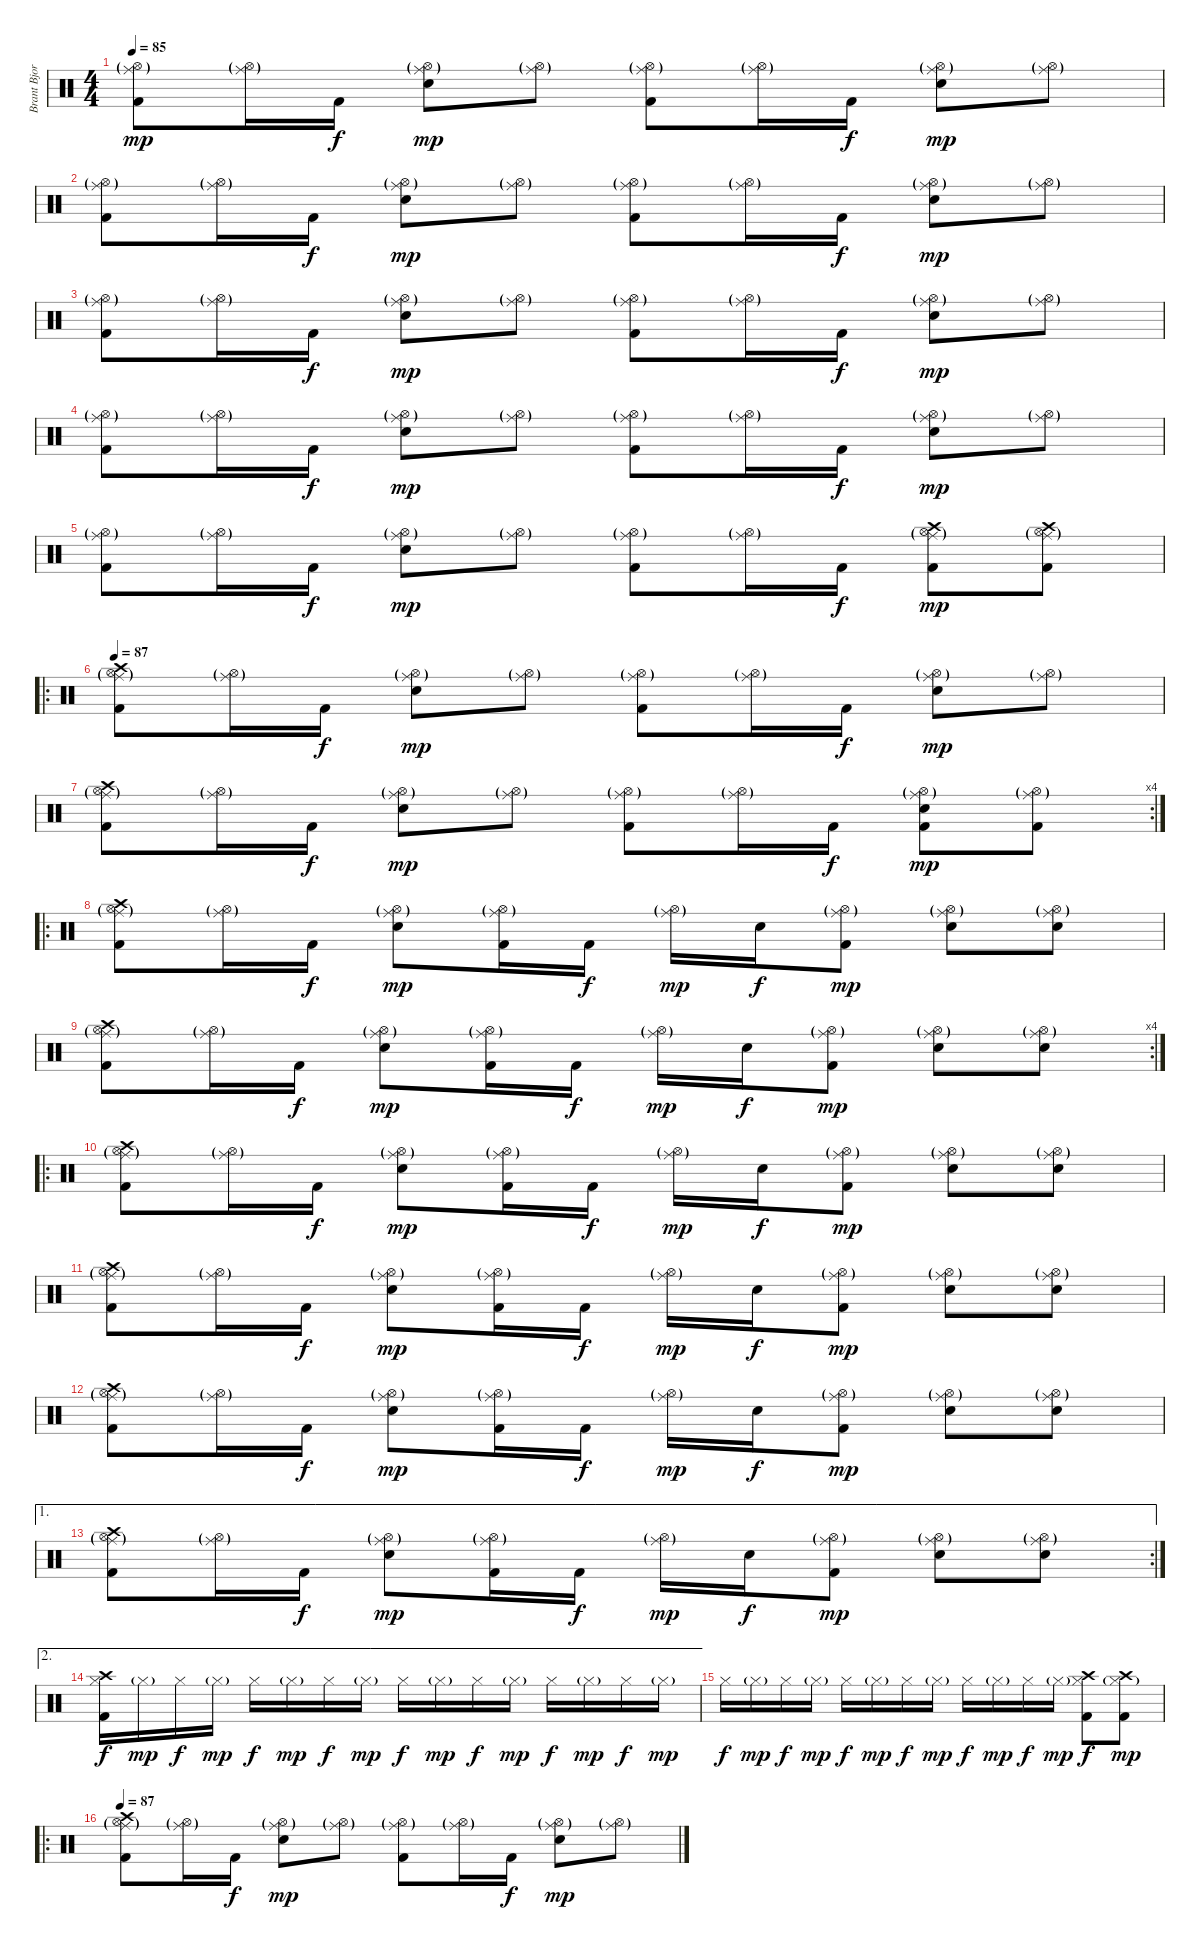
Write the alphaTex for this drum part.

\track ("Brant Bjork" "Brant Bjor") {instrument percussion}
\staff {score}
\articulation defaults
\ts (4 4)
\tempo 85
\clef neutral
\ks c
("Hi-Hat (open)"{g} "Ride (middle)"{g} "Kick (hit) 2").8{dy mp} ("Hi-Hat (open)"{g} "Ride (middle)"{g}).16 "Kick (hit) 2".16{dy f} ("Hi-Hat (open)"{g} "Ride (middle)"{g} "Electric Snare (hit)").8{dy mp} ("Hi-Hat (open)"{g} "Ride (middle)"{g}).8 ("Hi-Hat (open)"{g} "Ride (middle)"{g} "Kick (hit) 2").8 ("Hi-Hat (open)"{g} "Ride (middle)"{g}).16 "Kick (hit) 2".16{dy f} ("Hi-Hat (open)"{g} "Ride (middle)"{g} "Electric Snare (hit)").8{dy mp} ("Hi-Hat (open)"{g} "Ride (middle)"{g}).8 |
("Hi-Hat (open)"{g} "Ride (middle)"{g} "Kick (hit) 2").8 ("Hi-Hat (open)"{g} "Ride (middle)"{g}).16 "Kick (hit) 2".16{dy f} ("Hi-Hat (open)"{g} "Ride (middle)"{g} "Electric Snare (hit)").8{dy mp} ("Hi-Hat (open)"{g} "Ride (middle)"{g}).8 ("Hi-Hat (open)"{g} "Ride (middle)"{g} "Kick (hit) 2").8 ("Hi-Hat (open)"{g} "Ride (middle)"{g}).16 "Kick (hit) 2".16{dy f} ("Hi-Hat (open)"{g} "Ride (middle)"{g} "Electric Snare (hit)").8{dy mp} ("Hi-Hat (open)"{g} "Ride (middle)"{g}).8 |
("Hi-Hat (open)"{g} "Ride (middle)"{g} "Kick (hit) 2").8 ("Hi-Hat (open)"{g} "Ride (middle)"{g}).16 "Kick (hit) 2".16{dy f} ("Hi-Hat (open)"{g} "Ride (middle)"{g} "Electric Snare (hit)").8{dy mp} ("Hi-Hat (open)"{g} "Ride (middle)"{g}).8 ("Hi-Hat (open)"{g} "Ride (middle)"{g} "Kick (hit) 2").8 ("Hi-Hat (open)"{g} "Ride (middle)"{g}).16 "Kick (hit) 2".16{dy f} ("Hi-Hat (open)"{g} "Ride (middle)"{g} "Electric Snare (hit)").8{dy mp} ("Hi-Hat (open)"{g} "Ride (middle)"{g}).8 |
("Hi-Hat (open)"{g} "Ride (middle)"{g} "Kick (hit) 2").8 ("Hi-Hat (open)"{g} "Ride (middle)"{g}).16 "Kick (hit) 2".16{dy f} ("Hi-Hat (open)"{g} "Ride (middle)"{g} "Electric Snare (hit)").8{dy mp} ("Hi-Hat (open)"{g} "Ride (middle)"{g}).8 ("Hi-Hat (open)"{g} "Ride (middle)"{g} "Kick (hit) 2").8 ("Hi-Hat (open)"{g} "Ride (middle)"{g}).16 "Kick (hit) 2".16{dy f} ("Hi-Hat (open)"{g} "Ride (middle)"{g} "Electric Snare (hit)").8{dy mp} ("Hi-Hat (open)"{g} "Ride (middle)"{g}).8 |
("Hi-Hat (open)"{g} "Ride (middle)"{g} "Kick (hit) 2").8 ("Hi-Hat (open)"{g} "Ride (middle)"{g}).16 "Kick (hit) 2".16{dy f} ("Hi-Hat (open)"{g} "Ride (middle)"{g} "Electric Snare (hit)").8{dy mp} ("Hi-Hat (open)"{g} "Ride (middle)"{g}).8 ("Hi-Hat (open)"{g} "Ride (middle)"{g} "Kick (hit) 2").8 ("Hi-Hat (open)"{g} "Ride (middle)"{g}).16 "Kick (hit) 2".16{dy f} ("Hi-Hat (open)"{g} "Ride (middle)"{g} "Crash high (hit)" "Kick (hit) 2").8{dy mp} ("Hi-Hat (open)"{g} "Ride (middle)"{g} "Crash high (hit)" "Kick (hit) 2").8 |
\ro
\tempo 87
("Crash high (hit)" "Hi-Hat (open)"{g} "Ride (middle)"{g} "Kick (hit) 2").8 ("Hi-Hat (open)"{g} "Ride (middle)"{g}).16 "Kick (hit) 2".16{dy f} ("Hi-Hat (open)"{g} "Ride (middle)"{g} "Electric Snare (hit)").8{dy mp} ("Hi-Hat (open)"{g} "Ride (middle)"{g}).8 ("Hi-Hat (open)"{g} "Ride (middle)"{g} "Kick (hit) 2").8 ("Hi-Hat (open)"{g} "Ride (middle)"{g}).16 "Kick (hit) 2".16{dy f} ("Hi-Hat (open)"{g} "Ride (middle)"{g} "Electric Snare (hit)").8{dy mp} ("Hi-Hat (open)"{g} "Ride (middle)"{g}).8 |
\rc 4
("Crash high (hit)" "Hi-Hat (open)"{g} "Ride (middle)"{g} "Kick (hit) 2").8 ("Hi-Hat (open)"{g} "Ride (middle)"{g}).16 "Kick (hit) 2".16{dy f} ("Hi-Hat (open)"{g} "Ride (middle)"{g} "Electric Snare (hit)").8{dy mp} ("Hi-Hat (open)"{g} "Ride (middle)"{g}).8 ("Hi-Hat (open)"{g} "Ride (middle)"{g} "Kick (hit) 2").8 ("Hi-Hat (open)"{g} "Ride (middle)"{g}).16 "Kick (hit) 2".16{dy f} ("Hi-Hat (open)"{g} "Ride (middle)"{g} "Electric Snare (hit)" "Kick (hit) 2").8{dy mp} ("Hi-Hat (open)"{g} "Ride (middle)"{g} "Kick (hit) 2").8 |
\ro
("Crash high (hit)" "Hi-Hat (open)"{g} "Ride (middle)"{g} "Kick (hit) 2").8 ("Hi-Hat (open)"{g} "Ride (middle)"{g}).16 "Kick (hit) 2".16{dy f} ("Hi-Hat (open)"{g} "Ride (middle)"{g} "Electric Snare (hit)").8{dy mp} ("Hi-Hat (open)"{g} "Ride (middle)"{g} "Kick (hit) 2").16 "Kick (hit) 2".16{dy f} ("Hi-Hat (open)"{g} "Ride (middle)"{g}).16{dy mp} "Electric Snare (hit)".16{dy f} ("Hi-Hat (open)"{g} "Ride (middle)"{g} "Kick (hit) 2").8{dy mp} ("Hi-Hat (open)"{g} "Ride (middle)"{g} "Electric Snare (hit)").8 ("Hi-Hat (open)"{g} "Ride (middle)"{g} "Electric Snare (hit)").8 |
\rc 4
("Crash high (hit)" "Hi-Hat (open)"{g} "Ride (middle)"{g} "Kick (hit) 2").8 ("Hi-Hat (open)"{g} "Ride (middle)"{g}).16 "Kick (hit) 2".16{dy f} ("Hi-Hat (open)"{g} "Ride (middle)"{g} "Electric Snare (hit)").8{dy mp} ("Hi-Hat (open)"{g} "Ride (middle)"{g} "Kick (hit) 2").16 "Kick (hit) 2".16{dy f} ("Hi-Hat (open)"{g} "Ride (middle)"{g}).16{dy mp} "Electric Snare (hit)".16{dy f} ("Hi-Hat (open)"{g} "Ride (middle)"{g} "Kick (hit) 2").8{dy mp} ("Hi-Hat (open)"{g} "Ride (middle)"{g} "Electric Snare (hit)").8 ("Hi-Hat (open)"{g} "Ride (middle)"{g} "Electric Snare (hit)").8 |
\ro
("Crash high (hit)" "Hi-Hat (open)"{g} "Ride (middle)"{g} "Kick (hit) 2").8 ("Hi-Hat (open)"{g} "Ride (middle)"{g}).16 "Kick (hit) 2".16{dy f} ("Hi-Hat (open)"{g} "Ride (middle)"{g} "Electric Snare (hit)").8{dy mp} ("Hi-Hat (open)"{g} "Ride (middle)"{g} "Kick (hit) 2").16 "Kick (hit) 2".16{dy f} ("Hi-Hat (open)"{g} "Ride (middle)"{g}).16{dy mp} "Electric Snare (hit)".16{dy f} ("Hi-Hat (open)"{g} "Ride (middle)"{g} "Kick (hit) 2").8{dy mp} ("Hi-Hat (open)"{g} "Ride (middle)"{g} "Electric Snare (hit)").8 ("Hi-Hat (open)"{g} "Ride (middle)"{g} "Electric Snare (hit)").8 |
("Crash high (hit)" "Hi-Hat (open)"{g} "Ride (middle)"{g} "Kick (hit) 2").8 ("Hi-Hat (open)"{g} "Ride (middle)"{g}).16 "Kick (hit) 2".16{dy f} ("Hi-Hat (open)"{g} "Ride (middle)"{g} "Electric Snare (hit)").8{dy mp} ("Hi-Hat (open)"{g} "Ride (middle)"{g} "Kick (hit) 2").16 "Kick (hit) 2".16{dy f} ("Hi-Hat (open)"{g} "Ride (middle)"{g}).16{dy mp} "Electric Snare (hit)".16{dy f} ("Hi-Hat (open)"{g} "Ride (middle)"{g} "Kick (hit) 2").8{dy mp} ("Hi-Hat (open)"{g} "Ride (middle)"{g} "Electric Snare (hit)").8 ("Hi-Hat (open)"{g} "Ride (middle)"{g} "Electric Snare (hit)").8 |
("Crash high (hit)" "Hi-Hat (open)"{g} "Ride (middle)"{g} "Kick (hit) 2").8 ("Hi-Hat (open)"{g} "Ride (middle)"{g}).16 "Kick (hit) 2".16{dy f} ("Hi-Hat (open)"{g} "Ride (middle)"{g} "Electric Snare (hit)").8{dy mp} ("Hi-Hat (open)"{g} "Ride (middle)"{g} "Kick (hit) 2").16 "Kick (hit) 2".16{dy f} ("Hi-Hat (open)"{g} "Ride (middle)"{g}).16{dy mp} "Electric Snare (hit)".16{dy f} ("Hi-Hat (open)"{g} "Ride (middle)"{g} "Kick (hit) 2").8{dy mp} ("Hi-Hat (open)"{g} "Ride (middle)"{g} "Electric Snare (hit)").8 ("Hi-Hat (open)"{g} "Ride (middle)"{g} "Electric Snare (hit)").8 |
\ae 1
\rc 2
("Crash high (hit)" "Hi-Hat (open)"{g} "Ride (middle)"{g} "Kick (hit) 2").8 ("Hi-Hat (open)"{g} "Ride (middle)"{g}).16 "Kick (hit) 2".16{dy f} ("Hi-Hat (open)"{g} "Ride (middle)"{g} "Electric Snare (hit)").8{dy mp} ("Hi-Hat (open)"{g} "Ride (middle)"{g} "Kick (hit) 2").16 "Kick (hit) 2".16{dy f} ("Hi-Hat (open)"{g} "Ride (middle)"{g}).16{dy mp} "Electric Snare (hit)".16{dy f} ("Hi-Hat (open)"{g} "Ride (middle)"{g} "Kick (hit) 2").8{dy mp} ("Hi-Hat (open)"{g} "Ride (middle)"{g} "Electric Snare (hit)").8 ("Hi-Hat (open)"{g} "Ride (middle)"{g} "Electric Snare (hit)").8 |
\ae 2
("Crash high (hit)" "Kick (hit) 2" "Hi-Hat (closed)").16{dy f} "Hi-Hat (closed)"{g}.16{dy mp} "Hi-Hat (closed)".16{dy f} "Hi-Hat (closed)"{g}.16{dy mp} "Hi-Hat (closed)".16{dy f} "Hi-Hat (closed)"{g}.16{dy mp} "Hi-Hat (closed)".16{dy f} "Hi-Hat (closed)"{g}.16{dy mp} "Hi-Hat (closed)".16{dy f} "Hi-Hat (closed)"{g}.16{dy mp} "Hi-Hat (closed)".16{dy f} "Hi-Hat (closed)"{g}.16{dy mp} "Hi-Hat (closed)".16{dy f} "Hi-Hat (closed)"{g}.16{dy mp} "Hi-Hat (closed)".16{dy f} "Hi-Hat (closed)"{g}.16{dy mp} |
"Hi-Hat (closed)".16{dy f} "Hi-Hat (closed)"{g}.16{dy mp} "Hi-Hat (closed)".16{dy f} "Hi-Hat (closed)"{g}.16{dy mp} "Hi-Hat (closed)".16{dy f} "Hi-Hat (closed)"{g}.16{dy mp} "Hi-Hat (closed)".16{dy f} "Hi-Hat (closed)"{g}.16{dy mp} "Hi-Hat (closed)".16{dy f} "Hi-Hat (closed)"{g}.16{dy mp} "Hi-Hat (closed)".16{dy f} "Hi-Hat (closed)"{g}.16{dy mp} ("Crash high (hit)" "Kick (hit) 2" "Hi-Hat (closed)").8{dy f} ("Crash high (hit)" "Kick (hit) 2" "Hi-Hat (closed)"{g}).8{dy mp} |
\ro
\tempo 87
("Crash high (hit)" "Hi-Hat (open)"{g} "Ride (middle)"{g} "Kick (hit) 2").8 ("Hi-Hat (open)"{g} "Ride (middle)"{g}).16 "Kick (hit) 2".16{dy f} ("Hi-Hat (open)"{g} "Ride (middle)"{g} "Electric Snare (hit)").8{dy mp} ("Hi-Hat (open)"{g} "Ride (middle)"{g}).8 ("Hi-Hat (open)"{g} "Ride (middle)"{g} "Kick (hit) 2").8 ("Hi-Hat (open)"{g} "Ride (middle)"{g}).16 "Kick (hit) 2".16{dy f} ("Hi-Hat (open)"{g} "Ride (middle)"{g} "Electric Snare (hit)").8{dy mp} ("Hi-Hat (open)"{g} "Ride (middle)"{g}).8
